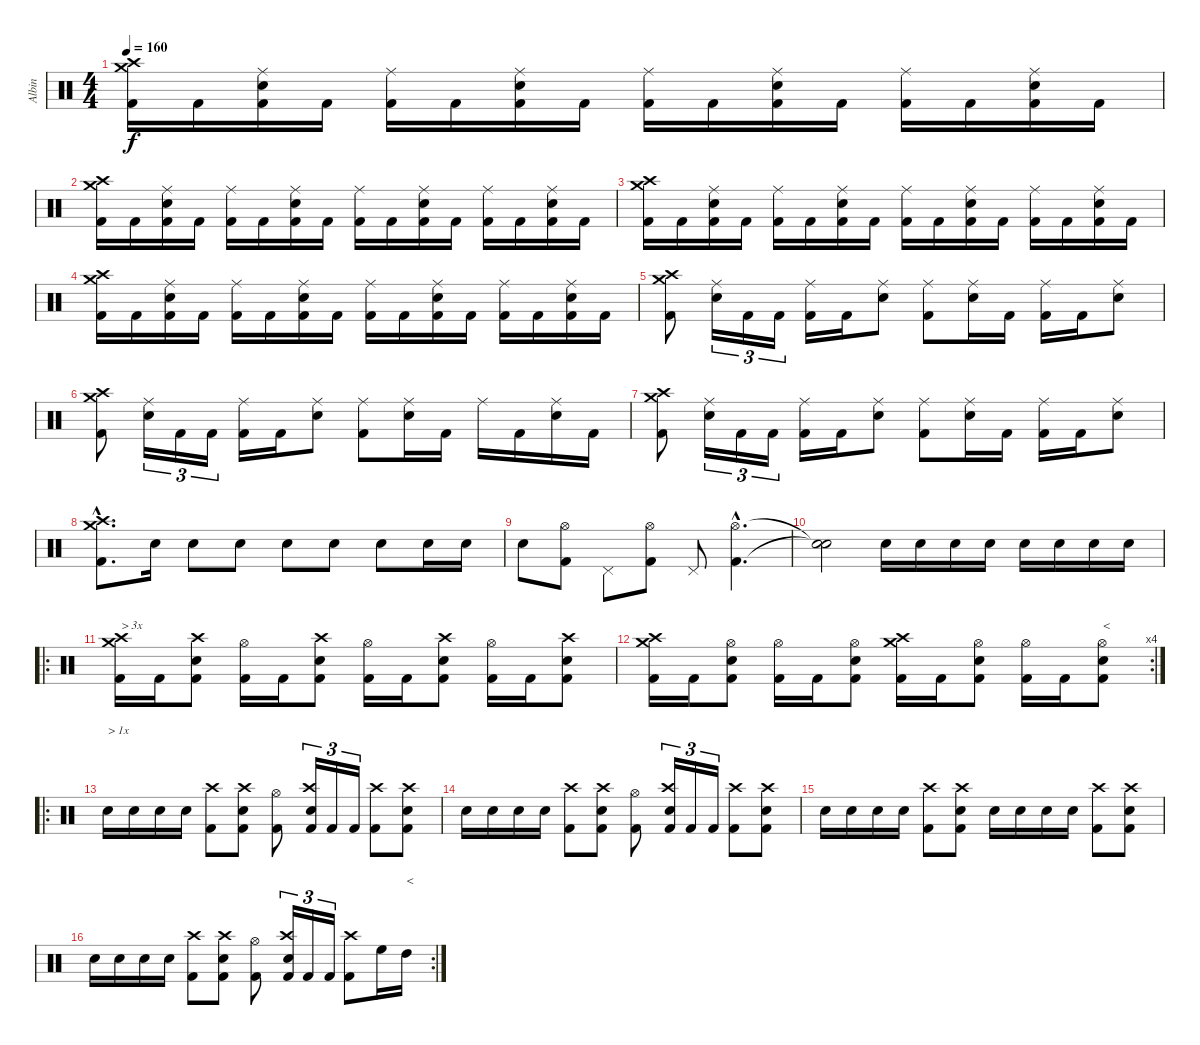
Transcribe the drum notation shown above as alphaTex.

\track ("Albin" "Albin") {instrument percussion}
\staff {score}
\articulation defaults
\ts (4 4)
\tempo 160
\clef neutral
\ks c
("Kick (hit) 2" "Crash high (hit)" "Crash medium (hit)").16{dy f} "Kick (hit) 2".16 ("Kick (hit) 2" "Electric Snare (hit)" "Ride (middle)").16 "Kick (hit) 2".16 ("Kick (hit) 2" "Ride (middle)").16 "Kick (hit) 2".16 ("Kick (hit) 2" "Electric Snare (hit)" "Ride (middle)").16 "Kick (hit) 2".16 ("Kick (hit) 2" "Ride (middle)").16 "Kick (hit) 2".16 ("Kick (hit) 2" "Electric Snare (hit)" "Ride (middle)").16 "Kick (hit) 2".16 ("Kick (hit) 2" "Ride (middle)").16 "Kick (hit) 2".16 ("Kick (hit) 2" "Electric Snare (hit)" "Ride (middle)").16 "Kick (hit) 2".16 |
("Kick (hit) 2" "Crash high (hit)" "Crash medium (hit)").16 "Kick (hit) 2".16 ("Kick (hit) 2" "Electric Snare (hit)" "Ride (middle)").16 "Kick (hit) 2".16 ("Kick (hit) 2" "Ride (middle)").16 "Kick (hit) 2".16 ("Kick (hit) 2" "Electric Snare (hit)" "Ride (middle)").16 "Kick (hit) 2".16 ("Kick (hit) 2" "Ride (middle)").16 "Kick (hit) 2".16 ("Kick (hit) 2" "Electric Snare (hit)" "Ride (middle)").16 "Kick (hit) 2".16 ("Kick (hit) 2" "Ride (middle)").16 "Kick (hit) 2".16 ("Kick (hit) 2" "Electric Snare (hit)" "Ride (middle)").16 "Kick (hit) 2".16 |
("Kick (hit) 2" "Crash high (hit)" "Crash medium (hit)").16 "Kick (hit) 2".16 ("Kick (hit) 2" "Electric Snare (hit)" "Ride (middle)").16 "Kick (hit) 2".16 ("Kick (hit) 2" "Ride (middle)").16 "Kick (hit) 2".16 ("Kick (hit) 2" "Electric Snare (hit)" "Ride (middle)").16 "Kick (hit) 2".16 ("Kick (hit) 2" "Ride (middle)").16 "Kick (hit) 2".16 ("Kick (hit) 2" "Electric Snare (hit)" "Ride (middle)").16 "Kick (hit) 2".16 ("Kick (hit) 2" "Ride (middle)").16 "Kick (hit) 2".16 ("Kick (hit) 2" "Electric Snare (hit)" "Ride (middle)").16 "Kick (hit) 2".16 |
("Kick (hit) 2" "Crash high (hit)" "Crash medium (hit)").16 "Kick (hit) 2".16 ("Kick (hit) 2" "Electric Snare (hit)" "Ride (middle)").16 "Kick (hit) 2".16 ("Kick (hit) 2" "Ride (middle)").16 "Kick (hit) 2".16 ("Kick (hit) 2" "Electric Snare (hit)" "Ride (middle)").16 "Kick (hit) 2".16 ("Kick (hit) 2" "Ride (middle)").16 "Kick (hit) 2".16 ("Kick (hit) 2" "Electric Snare (hit)" "Ride (middle)").16 "Kick (hit) 2".16 ("Kick (hit) 2" "Ride (middle)").16 "Kick (hit) 2".16 ("Kick (hit) 2" "Electric Snare (hit)" "Ride (middle)").16 "Kick (hit) 2".16 |
("Kick (hit) 2" "Crash high (hit)" "Crash medium (hit)").8 ("Electric Snare (hit)" "Ride (middle)").16{tu (3 2)} "Kick (hit) 2".16{tu (3 2)} "Kick (hit) 2".16{tu (3 2)} ("Kick (hit) 2" "Ride (middle)").16 "Kick (hit) 2".16 ("Electric Snare (hit)" "Ride (middle)").8 ("Kick (hit) 2" "Ride (middle)").8 ("Electric Snare (hit)" "Ride (middle)").16 "Kick (hit) 2".16 ("Kick (hit) 2" "Ride (middle)").16 "Kick (hit) 2".16 ("Electric Snare (hit)" "Ride (middle)").8 |
("Kick (hit) 2" "Crash high (hit)" "Crash medium (hit)").8 ("Electric Snare (hit)" "Ride (middle)").16{tu (3 2)} "Kick (hit) 2".16{tu (3 2)} "Kick (hit) 2".16{tu (3 2)} ("Kick (hit) 2" "Ride (middle)").16 "Kick (hit) 2".16 ("Electric Snare (hit)" "Ride (middle)").8 ("Kick (hit) 2" "Ride (middle)").8 ("Electric Snare (hit)" "Ride (middle)").16 "Kick (hit) 2".16 "Ride (middle)".16 "Kick (hit) 2".16 ("Electric Snare (hit)" "Ride (middle)").16 "Kick (hit) 2".16 |
("Kick (hit) 2" "Crash high (hit)" "Crash medium (hit)").8 ("Electric Snare (hit)" "Ride (middle)").16{tu (3 2)} "Kick (hit) 2".16{tu (3 2)} "Kick (hit) 2".16{tu (3 2)} ("Kick (hit) 2" "Ride (middle)").16 "Kick (hit) 2".16 ("Electric Snare (hit)" "Ride (middle)").8 ("Kick (hit) 2" "Ride (middle)").8 ("Electric Snare (hit)" "Ride (middle)").16 "Kick (hit) 2".16 ("Kick (hit) 2" "Ride (middle)").16 "Kick (hit) 2".16 ("Electric Snare (hit)" "Ride (middle)").8 |
("Kick (hit) 2"{hac} "Crash high (hit)"{hac} "Crash medium (hit)"{hac}).8{d} "Electric Snare (hit)".16 "Electric Snare (hit)".8 "Electric Snare (hit)".8 "Electric Snare (hit)".8 "Electric Snare (hit)".8 "Electric Snare (hit)".8 "Electric Snare (hit)".16 "Electric Snare (hit)".16 |
"Electric Snare (hit)".8 ("Kick (hit) 2" "Hi-Hat (open)").8 "Pedal Hi-Hat (hit)".8 ("Kick (hit) 2" "Hi-Hat (open)").8 "Pedal Hi-Hat (hit)".8 ("Kick (hit) 2"{hac} "Hi-Hat (open)"{hac}).4{d} |
("Snare (hit)"{t} "Snare (hit)"{t}).2 "Electric Snare (hit)".16 "Electric Snare (hit)".16 "Electric Snare (hit)".16 "Electric Snare (hit)".16 "Electric Snare (hit)".16 "Electric Snare (hit)".16 "Electric Snare (hit)".16 "Electric Snare (hit)".16 |
\ro
("Kick (hit) 2" "Crash high (hit)" "Crash medium (hit)").16{txt "> 3x"} "Kick (hit) 2".16 ("Kick (hit) 2" "Electric Snare (hit)" "Crash high (hit)").8 ("Kick (hit) 2" "Hi-Hat (open)").16 "Kick (hit) 2".16 ("Kick (hit) 2" "Electric Snare (hit)" "Crash high (hit)").8 ("Kick (hit) 2" "Hi-Hat (open)").16 "Kick (hit) 2".16 ("Kick (hit) 2" "Electric Snare (hit)" "Crash high (hit)").8 ("Kick (hit) 2" "Hi-Hat (open)").16 "Kick (hit) 2".16 ("Kick (hit) 2" "Electric Snare (hit)" "Crash high (hit)").8 |
\rc 4
("Kick (hit) 2" "Crash high (hit)" "Crash medium (hit)").16 "Kick (hit) 2".16 ("Kick (hit) 2" "Electric Snare (hit)" "Hi-Hat (open)").8 ("Kick (hit) 2" "Hi-Hat (open)").16 "Kick (hit) 2".16 ("Kick (hit) 2" "Electric Snare (hit)" "Hi-Hat (open)").8 ("Kick (hit) 2" "Crash high (hit)" "Crash medium (hit)").16 "Kick (hit) 2".16 ("Kick (hit) 2" "Electric Snare (hit)" "Hi-Hat (open)").8 ("Kick (hit) 2" "Hi-Hat (open)").16 "Kick (hit) 2".16 ("Kick (hit) 2" "Electric Snare (hit)" "Hi-Hat (open)").8{txt "<"} |
\ro "Electric Snare (hit)".16{txt "> 1x"} "Electric Snare (hit)".16 "Electric Snare (hit)".16 "Electric Snare (hit)".16
("Kick (hit) 2" "Crash high (hit)").8 ("Kick (hit) 2" "Electric Snare (hit)" "Crash high (hit)").8 ("Kick (hit) 2" "Hi-Hat (open)").8 ("Kick (hit) 2" "Electric Snare (hit)" "Crash high (hit)").16{tu (3 2)} "Kick (hit) 2".16{tu (3 2)} "Kick (hit) 2".16{tu (3 2)} ("Kick (hit) 2" "Crash high (hit)").8 ("Kick (hit) 2" "Electric Snare (hit)" "Crash high (hit)").8 |
"Electric Snare (hit)".16 "Electric Snare (hit)".16 "Electric Snare (hit)".16 "Electric Snare (hit)".16 ("Kick (hit) 2" "Crash high (hit)").8 ("Kick (hit) 2" "Electric Snare (hit)" "Crash high (hit)").8 ("Kick (hit) 2" "Hi-Hat (open)").8 ("Kick (hit) 2" "Electric Snare (hit)" "Crash high (hit)").16{tu (3 2)} "Kick (hit) 2".16{tu (3 2)} "Kick (hit) 2".16{tu (3 2)} ("Kick (hit) 2" "Crash high (hit)").8 ("Kick (hit) 2" "Electric Snare (hit)" "Crash high (hit)").8 |
"Electric Snare (hit)".16 "Electric Snare (hit)".16 "Electric Snare (hit)".16 "Electric Snare (hit)".16 ("Kick (hit) 2" "Crash high (hit)").8 ("Kick (hit) 2" "Electric Snare (hit)" "Crash high (hit)").8 "Electric Snare (hit)".16 "Electric Snare (hit)".16 "Electric Snare (hit)".16 "Electric Snare (hit)".16 ("Kick (hit) 2" "Crash high (hit)").8 ("Kick (hit) 2" "Electric Snare (hit)" "Crash high (hit)").8 |
\rc 2 "Electric Snare (hit)".16 "Electric Snare (hit)".16 "Electric Snare (hit)".16 "Electric Snare (hit)".16
("Kick (hit) 2" "Crash high (hit)").8 ("Kick (hit) 2" "Electric Snare (hit)" "Crash high (hit)").8 ("Kick (hit) 2" "Hi-Hat (open)").8 ("Kick (hit) 2" "Electric Snare (hit)" "Crash high (hit)").16{tu (3 2)} "Kick (hit) 2".16{tu (3 2)} "Kick (hit) 2".16{tu (3 2)} ("Kick (hit) 2" "Crash high (hit)").8 "High Floor Tom (hit)".16 "High Tom (hit)".16{txt "<"}
